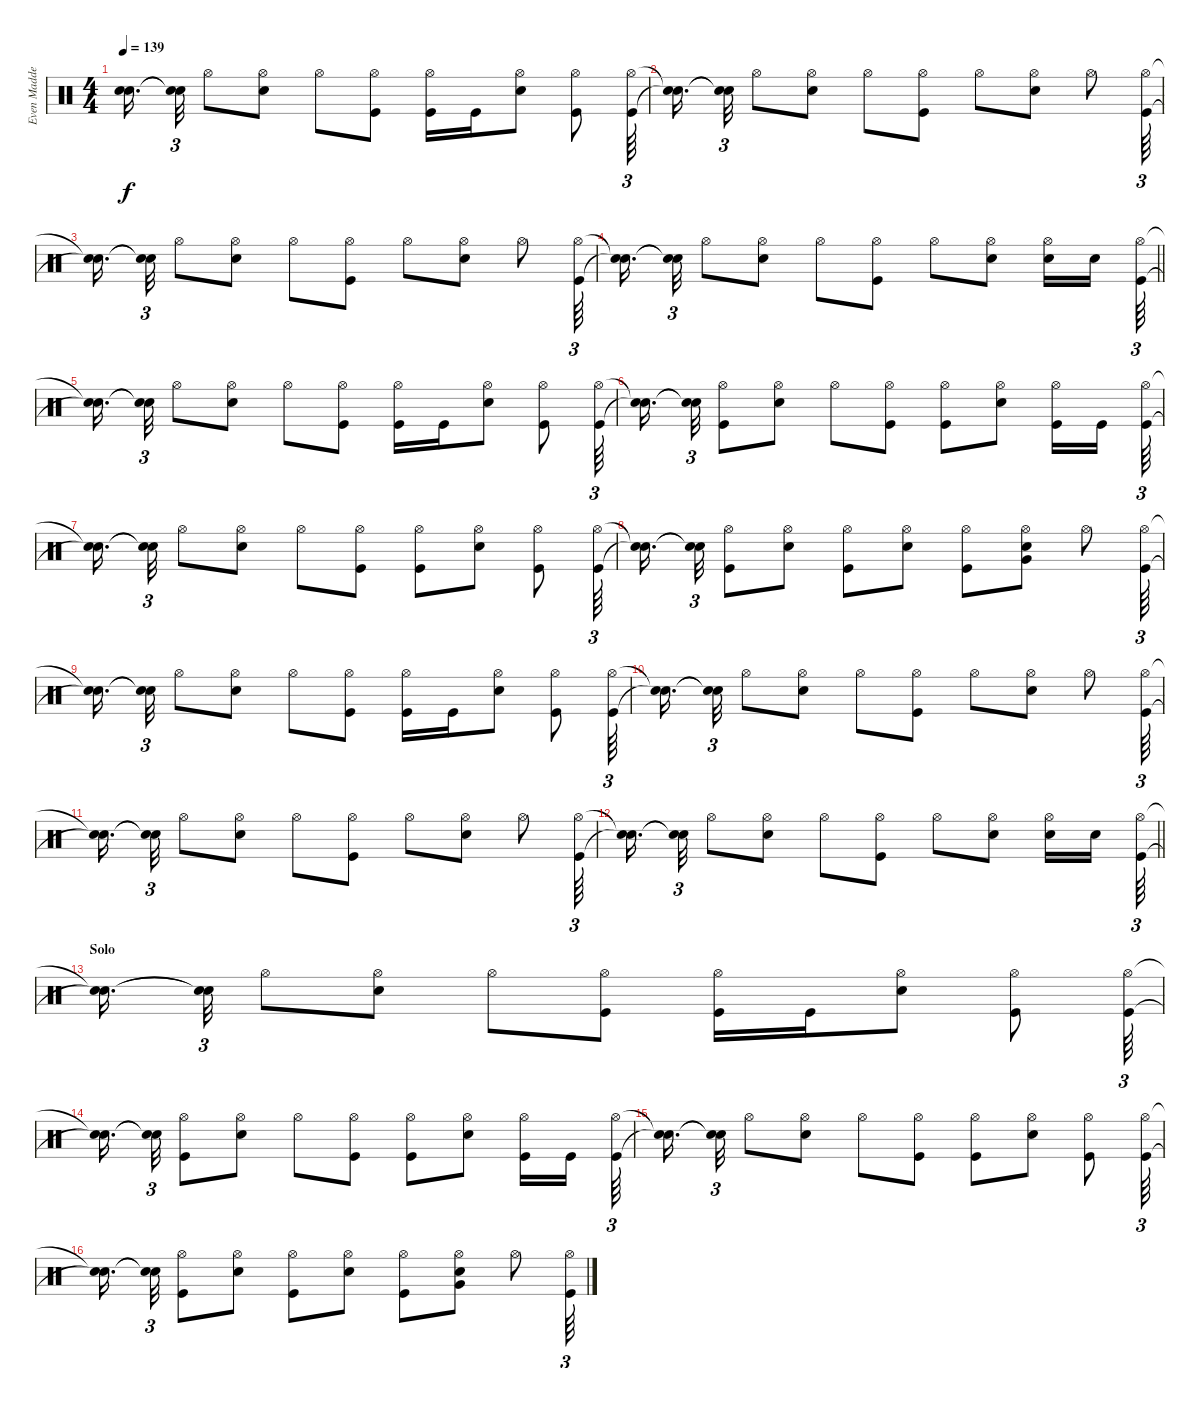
\track ("Even Madden - Drums" "Even Madde") {instrument percussion}
\staff {score}
\articulation defaults
\ts (4 4)
\tempo 139
\clef neutral
\ks c
("Snare (hit)"{t} "Snare (hit)"{t}).16{d dy f beam splitsecondary} ("Snare (hit)"{t} "Snare (hit)"{t}).32{tu (3 2)} "Hi-Hat (open)".8 ("Hi-Hat (open)" "Snare (hit) 2").8 "Hi-Hat (open)".8 ("Hi-Hat (open)" "Kick (hit)").8 ("Hi-Hat (open)" "Kick (hit)").16 "Kick (hit)".16 ("Hi-Hat (open)" "Snare (hit) 2").8 ("Hi-Hat (open)" "Kick (hit)").8 ("Hi-Hat (open)" "Kick (hit)").64{tu (3 2)} |
("Snare (hit)"{t} "Snare (hit)"{t}).16{d beam splitsecondary} ("Snare (hit)"{t} "Snare (hit)"{t}).32{tu (3 2)} "Hi-Hat (open)".8 ("Hi-Hat (open)" "Snare (hit) 2").8 "Hi-Hat (open)".8 ("Hi-Hat (open)" "Kick (hit)").8 "Hi-Hat (open)".8 ("Hi-Hat (open)" "Snare (hit) 2").8 "Hi-Hat (open)".8 ("Hi-Hat (open)" "Kick (hit)").64{tu (3 2)} |
("Snare (hit)"{t} "Snare (hit)"{t}).16{d beam splitsecondary} ("Snare (hit)"{t} "Snare (hit)"{t}).32{tu (3 2)} "Hi-Hat (open)".8 ("Hi-Hat (open)" "Snare (hit) 2").8 "Hi-Hat (open)".8 ("Hi-Hat (open)" "Kick (hit)").8 "Hi-Hat (open)".8 ("Hi-Hat (open)" "Snare (hit) 2").8 "Hi-Hat (open)".8 ("Hi-Hat (open)" "Kick (hit)").64{tu (3 2)} |
\barLineRight lightlight
("Snare (hit)"{t} "Snare (hit)"{t}).16{d beam splitsecondary} ("Snare (hit)"{t} "Snare (hit)"{t}).32{tu (3 2)} "Hi-Hat (open)".8 ("Hi-Hat (open)" "Snare (hit) 2").8 "Hi-Hat (open)".8 ("Hi-Hat (open)" "Kick (hit)").8 "Hi-Hat (open)".8 ("Hi-Hat (open)" "Snare (hit) 2").8 ("Hi-Hat (open)" "Snare (hit) 2").16 "Snare (hit) 2".16{beam splitsecondary} ("Hi-Hat (open)" "Kick (hit)").64{tu (3 2)} |
("Snare (hit)"{t} "Snare (hit)"{t}).16{d beam splitsecondary} ("Snare (hit)"{t} "Snare (hit)"{t}).32{tu (3 2)} "Hi-Hat (open)".8 ("Hi-Hat (open)" "Snare (hit) 2").8 "Hi-Hat (open)".8 ("Hi-Hat (open)" "Kick (hit)").8 ("Hi-Hat (open)" "Kick (hit)").16 "Kick (hit)".16 ("Hi-Hat (open)" "Snare (hit) 2").8 ("Hi-Hat (open)" "Kick (hit)").8 ("Hi-Hat (open)" "Kick (hit)").64{tu (3 2)} |
("Snare (hit)"{t} "Snare (hit)"{t}).16{d beam splitsecondary} ("Snare (hit)"{t} "Snare (hit)"{t}).32{tu (3 2)} ("Hi-Hat (open)" "Kick (hit)").8 ("Hi-Hat (open)" "Snare (hit) 2").8 "Hi-Hat (open)".8 ("Hi-Hat (open)" "Kick (hit)").8 ("Hi-Hat (open)" "Kick (hit)").8 ("Hi-Hat (open)" "Snare (hit) 2").8 ("Hi-Hat (open)" "Kick (hit)").16 "Kick (hit)".16{beam splitsecondary} ("Hi-Hat (open)" "Kick (hit)").64{tu (3 2)} |
("Snare (hit)"{t} "Snare (hit)"{t}).16{d beam splitsecondary} ("Snare (hit)"{t} "Snare (hit)"{t}).32{tu (3 2)} "Hi-Hat (open)".8 ("Hi-Hat (open)" "Snare (hit) 2").8 "Hi-Hat (open)".8 ("Hi-Hat (open)" "Kick (hit)").8 ("Hi-Hat (open)" "Kick (hit)").8 ("Hi-Hat (open)" "Snare (hit) 2").8 ("Hi-Hat (open)" "Kick (hit)").8 ("Hi-Hat (open)" "Kick (hit)").64{tu (3 2)} |
("Snare (hit)"{t} "Snare (hit)"{t}).16{d beam splitsecondary} ("Snare (hit)"{t} "Snare (hit)"{t}).32{tu (3 2)} ("Hi-Hat (open)" "Kick (hit)").8 ("Hi-Hat (open)" "Snare (hit) 2").8 ("Hi-Hat (open)" "Kick (hit)").8 ("Hi-Hat (open)" "Snare (hit) 2").8 ("Hi-Hat (open)" "Kick (hit)").8 ("Hi-Hat (open)" "Snare (hit) 2" "Very Low Tom (hit)").8 "Hi-Hat (open)".8 ("Hi-Hat (open)" "Kick (hit)").64{tu (3 2)} |
("Snare (hit)"{t} "Snare (hit)"{t}).16{d beam splitsecondary} ("Snare (hit)"{t} "Snare (hit)"{t}).32{tu (3 2)} "Hi-Hat (open)".8 ("Hi-Hat (open)" "Snare (hit) 2").8 "Hi-Hat (open)".8 ("Hi-Hat (open)" "Kick (hit)").8 ("Hi-Hat (open)" "Kick (hit)").16 "Kick (hit)".16 ("Hi-Hat (open)" "Snare (hit) 2").8 ("Hi-Hat (open)" "Kick (hit)").8 ("Hi-Hat (open)" "Kick (hit)").64{tu (3 2)} |
("Snare (hit)"{t} "Snare (hit)"{t}).16{d beam splitsecondary} ("Snare (hit)"{t} "Snare (hit)"{t}).32{tu (3 2)} "Hi-Hat (open)".8 ("Hi-Hat (open)" "Snare (hit) 2").8 "Hi-Hat (open)".8 ("Hi-Hat (open)" "Kick (hit)").8 "Hi-Hat (open)".8 ("Hi-Hat (open)" "Snare (hit) 2").8 "Hi-Hat (open)".8 ("Hi-Hat (open)" "Kick (hit)").64{tu (3 2)} |
("Snare (hit)"{t} "Snare (hit)"{t}).16{d beam splitsecondary} ("Snare (hit)"{t} "Snare (hit)"{t}).32{tu (3 2)} "Hi-Hat (open)".8 ("Hi-Hat (open)" "Snare (hit) 2").8 "Hi-Hat (open)".8 ("Hi-Hat (open)" "Kick (hit)").8 "Hi-Hat (open)".8 ("Hi-Hat (open)" "Snare (hit) 2").8 "Hi-Hat (open)".8 ("Hi-Hat (open)" "Kick (hit)").64{tu (3 2)} |
\barLineRight lightlight
("Snare (hit)"{t} "Snare (hit)"{t}).16{d beam splitsecondary} ("Snare (hit)"{t} "Snare (hit)"{t}).32{tu (3 2)} "Hi-Hat (open)".8 ("Hi-Hat (open)" "Snare (hit) 2").8 "Hi-Hat (open)".8 ("Hi-Hat (open)" "Kick (hit)").8 "Hi-Hat (open)".8 ("Hi-Hat (open)" "Snare (hit) 2").8 ("Hi-Hat (open)" "Snare (hit) 2").16 "Snare (hit) 2".16{beam splitsecondary} ("Hi-Hat (open)" "Kick (hit)").64{tu (3 2)} |
\section ("" "Solo")
("Snare (hit)"{t} "Snare (hit)"{t}).16{d beam splitsecondary} ("Snare (hit)"{t} "Snare (hit)"{t}).32{tu (3 2)} "Hi-Hat (open)".8 ("Hi-Hat (open)" "Snare (hit) 2").8 "Hi-Hat (open)".8 ("Hi-Hat (open)" "Kick (hit)").8 ("Hi-Hat (open)" "Kick (hit)").16 "Kick (hit)".16 ("Hi-Hat (open)" "Snare (hit) 2").8 ("Hi-Hat (open)" "Kick (hit)").8 ("Hi-Hat (open)" "Kick (hit)").64{tu (3 2)} |
("Snare (hit)"{t} "Snare (hit)"{t}).16{d beam splitsecondary} ("Snare (hit)"{t} "Snare (hit)"{t}).32{tu (3 2)} ("Hi-Hat (open)" "Kick (hit)").8 ("Hi-Hat (open)" "Snare (hit) 2").8 "Hi-Hat (open)".8 ("Hi-Hat (open)" "Kick (hit)").8 ("Hi-Hat (open)" "Kick (hit)").8 ("Hi-Hat (open)" "Snare (hit) 2").8 ("Hi-Hat (open)" "Kick (hit)").16 "Kick (hit)".16{beam splitsecondary} ("Hi-Hat (open)" "Kick (hit)").64{tu (3 2)} |
("Snare (hit)"{t} "Snare (hit)"{t}).16{d beam splitsecondary} ("Snare (hit)"{t} "Snare (hit)"{t}).32{tu (3 2)} "Hi-Hat (open)".8 ("Hi-Hat (open)" "Snare (hit) 2").8 "Hi-Hat (open)".8 ("Hi-Hat (open)" "Kick (hit)").8 ("Hi-Hat (open)" "Kick (hit)").8 ("Hi-Hat (open)" "Snare (hit) 2").8 ("Hi-Hat (open)" "Kick (hit)").8 ("Hi-Hat (open)" "Kick (hit)").64{tu (3 2)} |
("Snare (hit)"{t} "Snare (hit)"{t}).16{d beam splitsecondary} ("Snare (hit)"{t} "Snare (hit)"{t}).32{tu (3 2)} ("Hi-Hat (open)" "Kick (hit)").8 ("Hi-Hat (open)" "Snare (hit) 2").8 ("Hi-Hat (open)" "Kick (hit)").8 ("Hi-Hat (open)" "Snare (hit) 2").8 ("Hi-Hat (open)" "Kick (hit)").8 ("Hi-Hat (open)" "Snare (hit) 2" "Very Low Tom (hit)").8 "Hi-Hat (open)".8 ("Hi-Hat (open)" "Kick (hit)").64{tu (3 2)}
